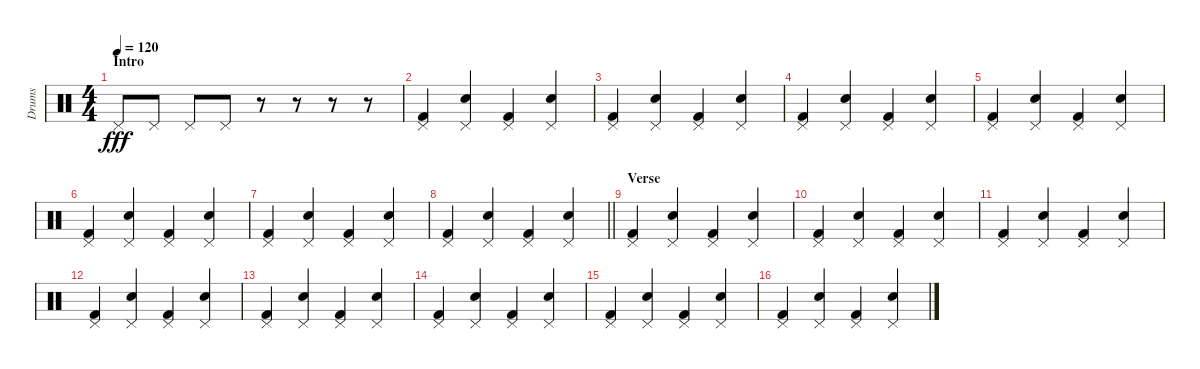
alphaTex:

\track ("Drums" "Drums") {instrument percussion}
\staff {score}
\articulation defaults
\ts (4 4)
\section ("" "Intro")
\tempo 120
\clef neutral
\ks c "Pedal Hi-Hat (hit)".8{dy fff} "Pedal Hi-Hat (hit)".8 "Pedal Hi-Hat (hit)".8 "Pedal Hi-Hat (hit)".8
r.8 r.8 r.8 r.8 |
("Pedal Hi-Hat (hit)" "Kick (hit) 2").4 ("Pedal Hi-Hat (hit)" "Electric Snare (hit)").4 ("Pedal Hi-Hat (hit)" "Kick (hit) 2").4 ("Pedal Hi-Hat (hit)" "Electric Snare (hit)").4 |
("Pedal Hi-Hat (hit)" "Kick (hit) 2").4 ("Pedal Hi-Hat (hit)" "Electric Snare (hit)").4 ("Pedal Hi-Hat (hit)" "Kick (hit) 2").4 ("Pedal Hi-Hat (hit)" "Electric Snare (hit)").4 |
("Pedal Hi-Hat (hit)" "Kick (hit) 2").4 ("Pedal Hi-Hat (hit)" "Electric Snare (hit)").4 ("Pedal Hi-Hat (hit)" "Kick (hit) 2").4 ("Pedal Hi-Hat (hit)" "Electric Snare (hit)").4 |
("Pedal Hi-Hat (hit)" "Kick (hit) 2").4 ("Pedal Hi-Hat (hit)" "Electric Snare (hit)").4 ("Pedal Hi-Hat (hit)" "Kick (hit) 2").4 ("Pedal Hi-Hat (hit)" "Electric Snare (hit)").4 |
("Pedal Hi-Hat (hit)" "Kick (hit) 2").4 ("Pedal Hi-Hat (hit)" "Electric Snare (hit)").4 ("Pedal Hi-Hat (hit)" "Kick (hit) 2").4 ("Pedal Hi-Hat (hit)" "Electric Snare (hit)").4 |
("Pedal Hi-Hat (hit)" "Kick (hit) 2").4 ("Pedal Hi-Hat (hit)" "Electric Snare (hit)").4 ("Pedal Hi-Hat (hit)" "Kick (hit) 2").4 ("Pedal Hi-Hat (hit)" "Electric Snare (hit)").4 |
\barLineRight lightlight
("Pedal Hi-Hat (hit)" "Kick (hit) 2").4 ("Pedal Hi-Hat (hit)" "Electric Snare (hit)").4 ("Pedal Hi-Hat (hit)" "Kick (hit) 2").4 ("Pedal Hi-Hat (hit)" "Electric Snare (hit)").4 |
\section ("" "Verse")
("Pedal Hi-Hat (hit)" "Kick (hit) 2").4 ("Pedal Hi-Hat (hit)" "Electric Snare (hit)").4 ("Pedal Hi-Hat (hit)" "Kick (hit) 2").4 ("Pedal Hi-Hat (hit)" "Electric Snare (hit)").4 |
("Pedal Hi-Hat (hit)" "Kick (hit) 2").4 ("Pedal Hi-Hat (hit)" "Electric Snare (hit)").4 ("Pedal Hi-Hat (hit)" "Kick (hit) 2").4 ("Pedal Hi-Hat (hit)" "Electric Snare (hit)").4 |
("Pedal Hi-Hat (hit)" "Kick (hit) 2").4 ("Pedal Hi-Hat (hit)" "Electric Snare (hit)").4 ("Pedal Hi-Hat (hit)" "Kick (hit) 2").4 ("Pedal Hi-Hat (hit)" "Electric Snare (hit)").4 |
("Pedal Hi-Hat (hit)" "Kick (hit) 2").4 ("Pedal Hi-Hat (hit)" "Electric Snare (hit)").4 ("Pedal Hi-Hat (hit)" "Kick (hit) 2").4 ("Pedal Hi-Hat (hit)" "Electric Snare (hit)").4 |
("Pedal Hi-Hat (hit)" "Kick (hit) 2").4 ("Pedal Hi-Hat (hit)" "Electric Snare (hit)").4 ("Pedal Hi-Hat (hit)" "Kick (hit) 2").4 ("Pedal Hi-Hat (hit)" "Electric Snare (hit)").4 |
("Pedal Hi-Hat (hit)" "Kick (hit) 2").4 ("Pedal Hi-Hat (hit)" "Electric Snare (hit)").4 ("Pedal Hi-Hat (hit)" "Kick (hit) 2").4 ("Pedal Hi-Hat (hit)" "Electric Snare (hit)").4 |
("Pedal Hi-Hat (hit)" "Kick (hit) 2").4 ("Pedal Hi-Hat (hit)" "Electric Snare (hit)").4 ("Pedal Hi-Hat (hit)" "Kick (hit) 2").4 ("Pedal Hi-Hat (hit)" "Electric Snare (hit)").4 |
("Pedal Hi-Hat (hit)" "Kick (hit) 2").4 ("Pedal Hi-Hat (hit)" "Electric Snare (hit)").4 ("Pedal Hi-Hat (hit)" "Kick (hit) 2").4 ("Pedal Hi-Hat (hit)" "Electric Snare (hit)").4
